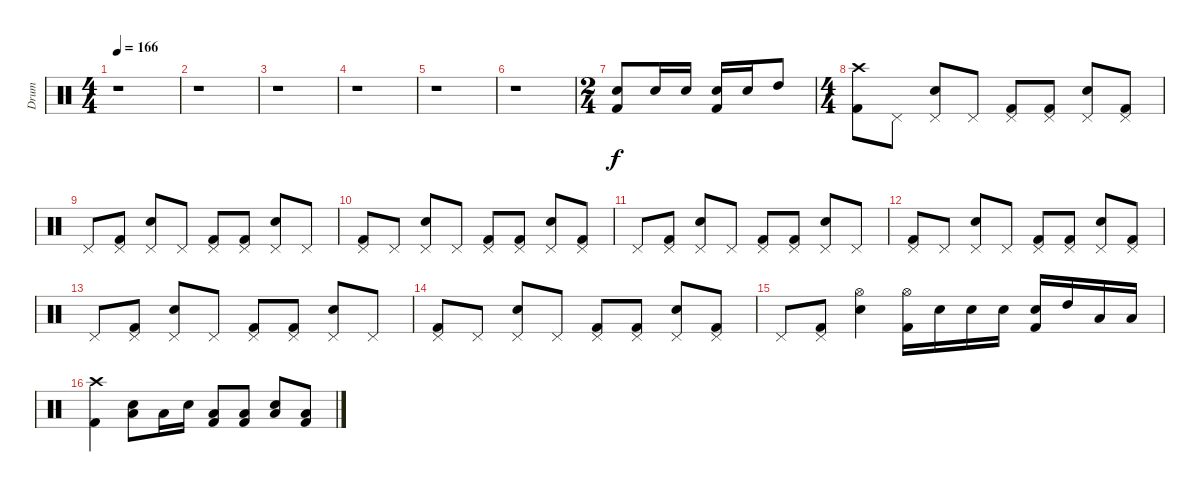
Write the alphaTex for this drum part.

\track ("Drum" "Drum") {instrument percussion}
\staff {score}
\articulation defaults
\ts (4 4)
\tempo 166
\clef neutral
\ks c
r.1{dy f} |
r.1 |
r.1 |
r.1 |
r.1 |
r.1 |
\ts (2 4)
("Electric Snare (hit)" "Kick (hit) 2").8 "Electric Snare (hit)".16 "Electric Snare (hit)".16 ("Electric Snare (hit)" "Kick (hit) 2").16 "Electric Snare (hit)".16 "High Tom (hit)".8 |
\ts (4 4)
("Crash high (hit)" "Kick (hit) 2").8 "Pedal Hi-Hat (hit)".8 ("Pedal Hi-Hat (hit)" "Electric Snare (hit)").8 "Pedal Hi-Hat (hit)".8 ("Pedal Hi-Hat (hit)" "Kick (hit) 2").8 ("Pedal Hi-Hat (hit)" "Kick (hit) 2").8 ("Pedal Hi-Hat (hit)" "Electric Snare (hit)").8 ("Pedal Hi-Hat (hit)" "Kick (hit) 2").8 |
"Pedal Hi-Hat (hit)".8 ("Pedal Hi-Hat (hit)" "Kick (hit) 2").8 ("Pedal Hi-Hat (hit)" "Electric Snare (hit)").8 "Pedal Hi-Hat (hit)".8 ("Pedal Hi-Hat (hit)" "Kick (hit) 2").8 ("Pedal Hi-Hat (hit)" "Kick (hit) 2").8 ("Pedal Hi-Hat (hit)" "Electric Snare (hit)").8 "Pedal Hi-Hat (hit)".8 |
("Pedal Hi-Hat (hit)" "Kick (hit) 2").8 "Pedal Hi-Hat (hit)".8 ("Pedal Hi-Hat (hit)" "Electric Snare (hit)").8 "Pedal Hi-Hat (hit)".8 ("Pedal Hi-Hat (hit)" "Kick (hit) 2").8 ("Pedal Hi-Hat (hit)" "Kick (hit) 2").8 ("Pedal Hi-Hat (hit)" "Electric Snare (hit)").8 ("Pedal Hi-Hat (hit)" "Kick (hit) 2").8 |
"Pedal Hi-Hat (hit)".8 ("Pedal Hi-Hat (hit)" "Kick (hit) 2").8 ("Pedal Hi-Hat (hit)" "Electric Snare (hit)").8 "Pedal Hi-Hat (hit)".8 ("Pedal Hi-Hat (hit)" "Kick (hit) 2").8 ("Pedal Hi-Hat (hit)" "Kick (hit) 2").8 ("Pedal Hi-Hat (hit)" "Electric Snare (hit)").8 "Pedal Hi-Hat (hit)".8 |
("Pedal Hi-Hat (hit)" "Kick (hit) 2").8 "Pedal Hi-Hat (hit)".8 ("Pedal Hi-Hat (hit)" "Electric Snare (hit)").8 "Pedal Hi-Hat (hit)".8 ("Pedal Hi-Hat (hit)" "Kick (hit) 2").8 ("Pedal Hi-Hat (hit)" "Kick (hit) 2").8 ("Pedal Hi-Hat (hit)" "Electric Snare (hit)").8 ("Pedal Hi-Hat (hit)" "Kick (hit) 2").8 |
"Pedal Hi-Hat (hit)".8 ("Pedal Hi-Hat (hit)" "Kick (hit) 2").8 ("Pedal Hi-Hat (hit)" "Electric Snare (hit)").8 "Pedal Hi-Hat (hit)".8 ("Pedal Hi-Hat (hit)" "Kick (hit) 2").8 ("Pedal Hi-Hat (hit)" "Kick (hit) 2").8 ("Pedal Hi-Hat (hit)" "Electric Snare (hit)").8 "Pedal Hi-Hat (hit)".8 |
("Pedal Hi-Hat (hit)" "Kick (hit) 2").8 "Pedal Hi-Hat (hit)".8 ("Pedal Hi-Hat (hit)" "Electric Snare (hit)").8 "Pedal Hi-Hat (hit)".8 ("Pedal Hi-Hat (hit)" "Kick (hit) 2").8 ("Pedal Hi-Hat (hit)" "Kick (hit) 2").8 ("Pedal Hi-Hat (hit)" "Electric Snare (hit)").8 ("Pedal Hi-Hat (hit)" "Kick (hit) 2").8 |
"Pedal Hi-Hat (hit)".8 ("Pedal Hi-Hat (hit)" "Kick (hit) 2").8 ("Hi-Hat (open)" "Electric Snare (hit)").4 ("Hi-Hat (open)" "Kick (hit) 2").16 "Electric Snare (hit)".16 "Electric Snare (hit)".16 "Electric Snare (hit)".16 ("Electric Snare (hit)" "Kick (hit) 2").16 "High Tom (hit)".16 "Low Tom (hit)".16 "Low Tom (hit)".16 |
("Crash high (hit)" "Kick (hit) 2").4 ("Low Tom (hit)" "Electric Snare (hit)").8 "Low Tom (hit)".16 "Electric Snare (hit)".16 ("Low Tom (hit)" "Kick (hit) 2").8 ("Low Tom (hit)" "Kick (hit) 2").8 ("Low Tom (hit)" "Electric Snare (hit)").8 ("Low Tom (hit)" "Kick (hit) 2").8
